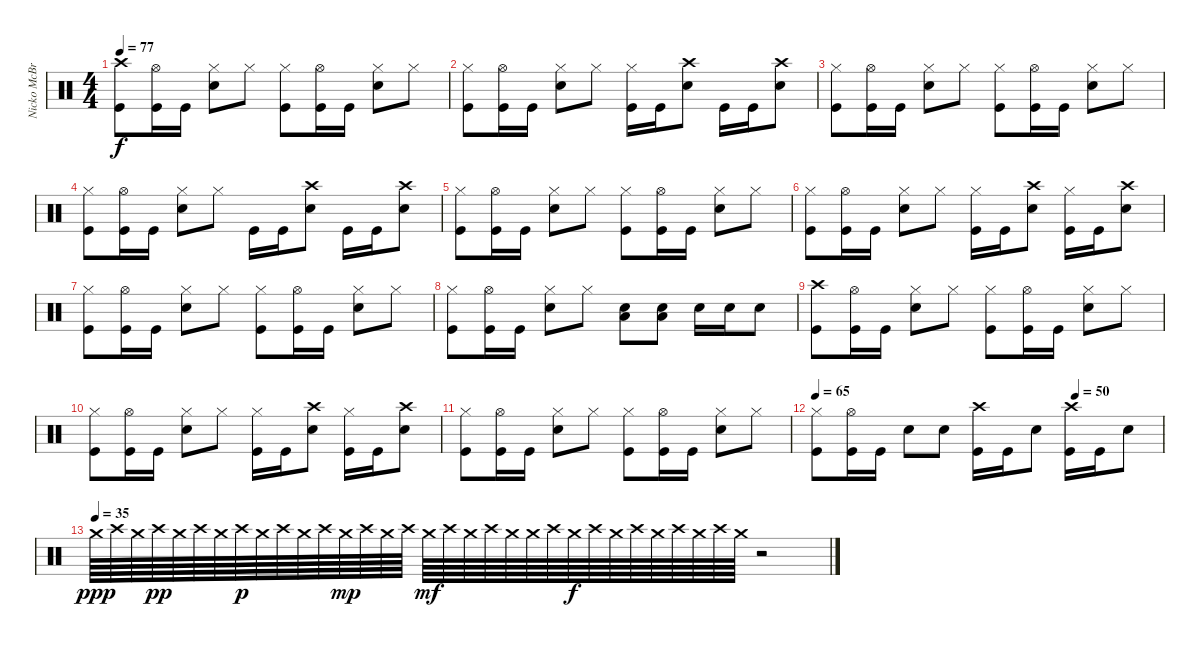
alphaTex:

\track ("Nicko McBrain" "Nicko McBr") {instrument percussion}
\staff {score}
\articulation defaults
\ts (4 4)
\tempo 77
\clef neutral
\ks c
("Crash high (hit)" "Kick (hit)").8{dy f} ("Hi-Hat (open)" "Kick (hit)").16 "Kick (hit)".16 ("Hi-Hat (closed)" "Snare (hit) 2").8 "Hi-Hat (closed)".8 ("Hi-Hat (closed)" "Kick (hit)").8 ("Hi-Hat (open)" "Kick (hit)").16 "Kick (hit)".16 ("Hi-Hat (closed)" "Snare (hit) 2").8 "Hi-Hat (closed)".8 |
("Hi-Hat (closed)" "Kick (hit)").8 ("Hi-Hat (open)" "Kick (hit)").16 "Kick (hit)".16 ("Hi-Hat (closed)" "Snare (hit) 2").8 "Hi-Hat (closed)".8 ("Hi-Hat (closed)" "Kick (hit)").16 "Kick (hit)".16 ("Crash high (hit)" "Snare (hit) 2").8 "Kick (hit)".16 "Kick (hit)".16 ("Crash high (hit)" "Snare (hit) 2").8 |
("Hi-Hat (closed)" "Kick (hit)").8 ("Hi-Hat (open)" "Kick (hit)").16 "Kick (hit)".16 ("Hi-Hat (closed)" "Snare (hit) 2").8 "Hi-Hat (closed)".8 ("Hi-Hat (closed)" "Kick (hit)").8 ("Hi-Hat (open)" "Kick (hit)").16 "Kick (hit)".16 ("Hi-Hat (closed)" "Snare (hit) 2").8 "Hi-Hat (closed)".8 |
("Hi-Hat (closed)" "Kick (hit)").8 ("Hi-Hat (open)" "Kick (hit)").16 "Kick (hit)".16 ("Hi-Hat (closed)" "Snare (hit) 2").8 "Hi-Hat (closed)".8 "Kick (hit)".16 "Kick (hit)".16 ("Crash high (hit)" "Snare (hit) 2").8 "Kick (hit)".16 "Kick (hit)".16 ("Crash high (hit)" "Snare (hit) 2").8 |
("Hi-Hat (closed)" "Kick (hit)").8 ("Hi-Hat (open)" "Kick (hit)").16 "Kick (hit)".16 ("Hi-Hat (closed)" "Snare (hit) 2").8 "Hi-Hat (closed)".8 ("Hi-Hat (closed)" "Kick (hit)").8 ("Hi-Hat (open)" "Kick (hit)").16 "Kick (hit)".16 ("Hi-Hat (closed)" "Snare (hit) 2").8 "Hi-Hat (closed)".8 |
("Hi-Hat (closed)" "Kick (hit)").8 ("Hi-Hat (open)" "Kick (hit)").16 "Kick (hit)".16 ("Hi-Hat (closed)" "Snare (hit) 2").8 "Hi-Hat (closed)".8 ("Hi-Hat (closed)" "Kick (hit)").16 "Kick (hit)".16 ("Crash high (hit)" "Snare (hit) 2").8 ("Hi-Hat (closed)" "Kick (hit)").16 "Kick (hit)".16 ("Crash high (hit)" "Snare (hit) 2").8 |
("Hi-Hat (closed)" "Kick (hit)").8 ("Hi-Hat (open)" "Kick (hit)").16 "Kick (hit)".16 ("Hi-Hat (closed)" "Snare (hit) 2").8 "Hi-Hat (closed)".8 ("Hi-Hat (closed)" "Kick (hit)").8 ("Hi-Hat (open)" "Kick (hit)").16 "Kick (hit)".16 ("Hi-Hat (closed)" "Snare (hit) 2").8 "Hi-Hat (closed)".8 |
("Hi-Hat (closed)" "Kick (hit)").8 ("Hi-Hat (open)" "Kick (hit)").16 "Kick (hit)".16 ("Hi-Hat (closed)" "Snare (hit) 2").8 "Hi-Hat (closed)".8 ("Low Floor Tom (hit)" "Snare (hit) 2").8 ("Low Floor Tom (hit)" "Snare (hit) 2").8 "Snare (hit) 2".16 "Snare (hit) 2".16 "Snare (hit) 2".8 |
("Crash high (hit)" "Kick (hit)").8 ("Hi-Hat (open)" "Kick (hit)").16 "Kick (hit)".16 ("Hi-Hat (closed)" "Snare (hit) 2").8 "Hi-Hat (closed)".8 ("Hi-Hat (closed)" "Kick (hit)").8 ("Hi-Hat (open)" "Kick (hit)").16 "Kick (hit)".16 ("Hi-Hat (closed)" "Snare (hit) 2").8 "Hi-Hat (closed)".8 |
("Hi-Hat (closed)" "Kick (hit)").8 ("Hi-Hat (open)" "Kick (hit)").16 "Kick (hit)".16 ("Hi-Hat (closed)" "Snare (hit) 2").8 "Hi-Hat (closed)".8 ("Hi-Hat (closed)" "Kick (hit)").16 "Kick (hit)".16 ("Crash high (hit)" "Snare (hit) 2").8 ("Hi-Hat (closed)" "Kick (hit)").16 "Kick (hit)".16 ("Crash high (hit)" "Snare (hit) 2").8 |
("Hi-Hat (closed)" "Kick (hit)").8 ("Hi-Hat (open)" "Kick (hit)").16 "Kick (hit)".16 ("Hi-Hat (closed)" "Snare (hit) 2").8 "Hi-Hat (closed)".8 ("Hi-Hat (closed)" "Kick (hit)").8 ("Hi-Hat (open)" "Kick (hit)").16 "Kick (hit)".16 ("Hi-Hat (closed)" "Snare (hit) 2").8 "Hi-Hat (closed)".8 |
\tempo 65
\tempo (50 0.75)
("Hi-Hat (closed)" "Kick (hit)").8 ("Hi-Hat (open)" "Kick (hit)").16 "Kick (hit)".16 "Snare (hit) 2".8 "Snare (hit) 2".8 ("Crash high (hit)" "Kick (hit)").16 "Kick (hit)".16 "Snare (hit) 2".8 ("Crash high (hit)" "Kick (hit)").16 "Kick (hit)".16 "Snare (hit) 2".8 |
\tempo (35)
"Crash medium (hit)".64{dy ppp} "Crash high (hit)".64 "Crash medium (hit)".64 "Crash high (hit)".64{dy pp} "Crash medium (hit)".64 "Crash high (hit)".64 "Crash medium (hit)".64 "Crash high (hit)".64{dy p} "Crash medium (hit)".64 "Crash high (hit)".64 "Crash medium (hit)".64 "Crash high (hit)".64 "Crash medium (hit)".64{dy mp} "Crash high (hit)".64 "Crash medium (hit)".64 "Crash high (hit)".64 "Crash medium (hit)".64{dy mf} "Crash high (hit)".64 "Crash medium (hit)".64 "Crash high (hit)".64 "Crash medium (hit)".64 "Crash medium (hit)".64 "Crash high (hit)".64 "Crash medium (hit)".64{dy f} "Crash high (hit)".64 "Crash medium (hit)".64 "Crash high (hit)".64 "Crash medium (hit)".64 "Crash high (hit)".64 "Crash medium (hit)".64 "Crash high (hit)".64 "Crash medium (hit)".64 r.2
